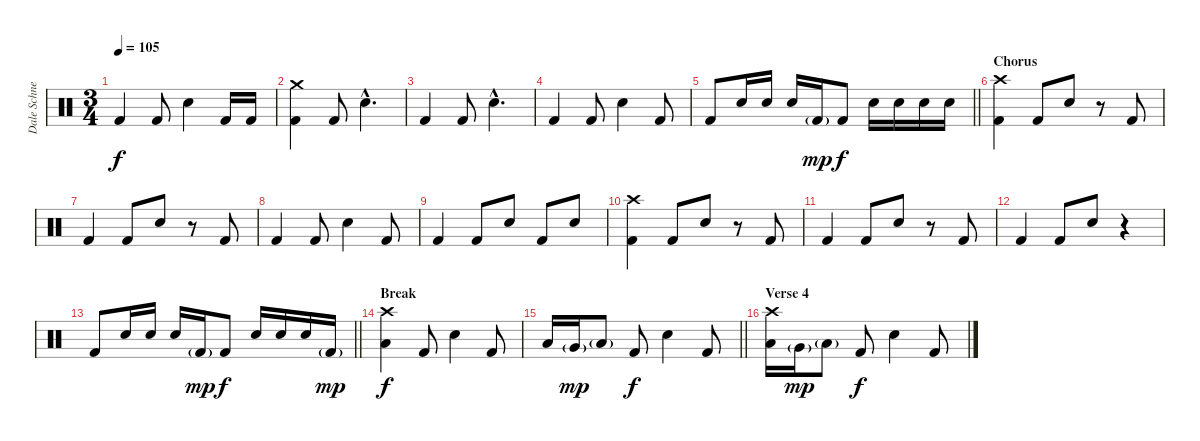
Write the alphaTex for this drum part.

\track ("Dale Schnettler (Drums)" "Dale Schne") {instrument percussion}
\staff {score}
\articulation defaults
\ts (3 4)
\tempo 105
\clef neutral
\ks c "Kick (hit) 2".4{dy f} "Kick (hit) 2".8 "Electric Snare (hit)".4 "Kick (hit) 2".16 "Kick (hit) 2".16
|
("Crash medium (hit)" "Kick (hit) 2").4 "Kick (hit) 2".8 "Electric Snare (hit)"{hac}.4{d} |
"Kick (hit) 2".4 "Kick (hit) 2".8 "Electric Snare (hit)"{hac}.4{d} |
"Kick (hit) 2".4 "Kick (hit) 2".8 "Electric Snare (hit)".4 "Kick (hit) 2".8 |
\barLineRight lightlight "Kick (hit) 2".8 "Electric Snare (hit)".16 "Electric Snare (hit)".16 "Electric Snare (hit)".16 "Kick (hit) 2"{g}.16{dy mp} "Kick (hit) 2".8{dy f} "Electric Snare (hit)".16 "Electric Snare (hit)".16 "Electric Snare (hit)".16 "Electric Snare (hit)".16
|
\section ("" "Chorus")
("Crash high (hit)" "Kick (hit) 2").4 "Kick (hit) 2".8 "Electric Snare (hit)".8 r.8 "Kick (hit) 2".8 |
"Kick (hit) 2".4 "Kick (hit) 2".8 "Electric Snare (hit)".8 r.8 "Kick (hit) 2".8 |
"Kick (hit) 2".4 "Kick (hit) 2".8 "Electric Snare (hit)".4 "Kick (hit) 2".8 |
"Kick (hit) 2".4 "Kick (hit) 2".8 "Electric Snare (hit)".8 "Kick (hit) 2".8 "Electric Snare (hit)".8 |
("Crash high (hit)" "Kick (hit) 2").4 "Kick (hit) 2".8 "Electric Snare (hit)".8 r.8 "Kick (hit) 2".8 |
"Kick (hit) 2".4 "Kick (hit) 2".8 "Electric Snare (hit)".8 r.8 "Kick (hit) 2".8 |
"Kick (hit) 2".4 "Kick (hit) 2".8 "Electric Snare (hit)".8 r.4 |
\barLineRight lightlight "Kick (hit) 2".8 "Electric Snare (hit)".16 "Electric Snare (hit)".16 "Electric Snare (hit)".16 "Kick (hit) 2"{g}.16{dy mp} "Kick (hit) 2".8{dy f} "Electric Snare (hit)".16 "Electric Snare (hit)".16 "Electric Snare (hit)".16 "Kick (hit) 2"{g}.16{dy mp}
|
\section ("" "Break")
("Crash high (hit)" "Low Tom (hit)").4{dy f} "Kick (hit) 2".8 "Electric Snare (hit)".4 "Kick (hit) 2".8 |
\barLineRight lightlight "Low Tom (hit)".16 "Very Low Tom (hit)"{g}.16{dy mp} "Low Floor Tom (hit)"{g}.8 "Kick (hit) 2".8{dy f} "Electric Snare (hit)".4 "Kick (hit) 2".8
|
\section ("" "Verse 4")
("Crash high (hit)" "Low Tom (hit)").16 "Very Low Tom (hit)"{g}.16{dy mp} "Low Floor Tom (hit)"{g}.8 "Kick (hit) 2".8{dy f} "Electric Snare (hit)".4 "Kick (hit) 2".8
